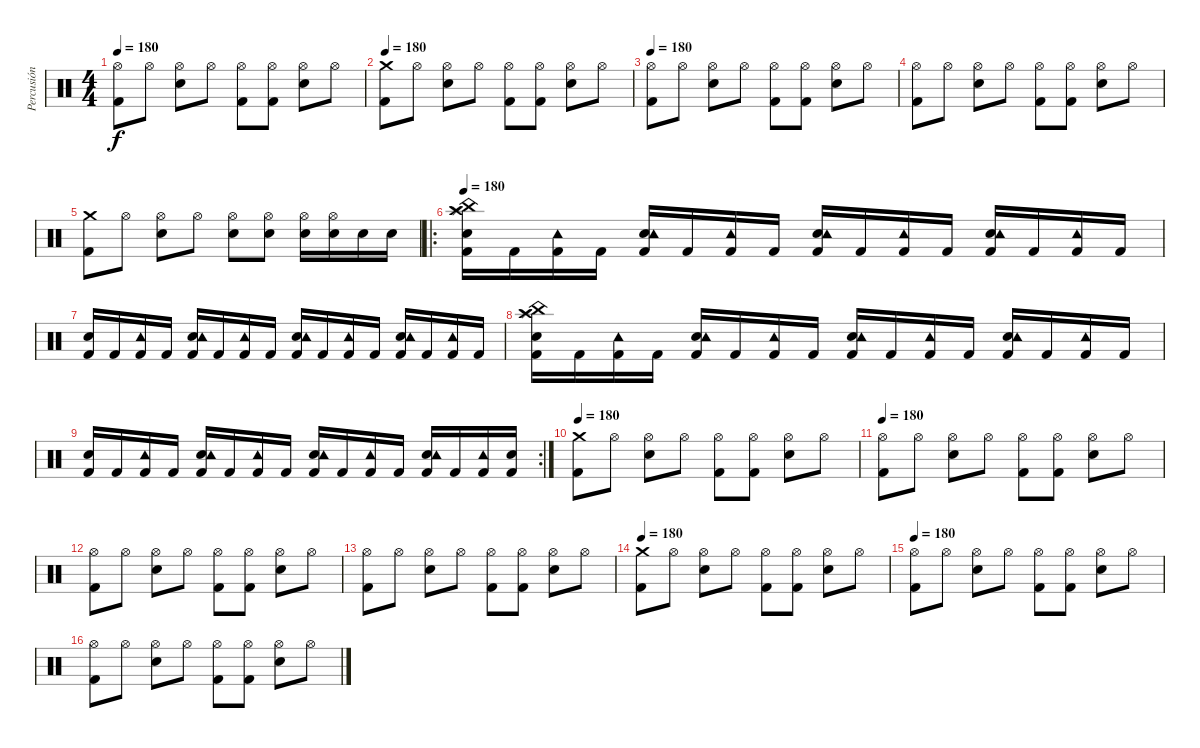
\track ("Percusión" "Percusión") {instrument percussion}
\staff {score}
\articulation defaults
\ts (4 4)
\tempo 180
\clef neutral
\ks c
("Hi-Hat (open)" "Kick (hit) 2").8{dy f} "Hi-Hat (open)".8 ("Hi-Hat (open)" "Snare (hit) 2").8 "Hi-Hat (open)".8 ("Hi-Hat (open)" "Kick (hit) 2").8 ("Hi-Hat (open)" "Kick (hit) 2").8 ("Hi-Hat (open)" "Snare (hit) 2").8 "Hi-Hat (open)".8 |
\tempo 180
("Crash medium (hit)" "Kick (hit) 2").8 "Hi-Hat (open)".8 ("Hi-Hat (open)" "Snare (hit) 2").8 "Hi-Hat (open)".8 ("Hi-Hat (open)" "Kick (hit) 2").8 ("Hi-Hat (open)" "Kick (hit) 2").8 ("Hi-Hat (open)" "Snare (hit) 2").8 "Hi-Hat (open)".8 |
\tempo 180
("Hi-Hat (open)" "Kick (hit) 2").8 "Hi-Hat (open)".8 ("Hi-Hat (open)" "Snare (hit) 2").8 "Hi-Hat (open)".8 ("Hi-Hat (open)" "Kick (hit) 2").8 ("Hi-Hat (open)" "Kick (hit) 2").8 ("Hi-Hat (open)" "Snare (hit) 2").8 "Hi-Hat (open)".8 |
("Hi-Hat (open)" "Kick (hit) 2").8 "Hi-Hat (open)".8 ("Hi-Hat (open)" "Snare (hit) 2").8 "Hi-Hat (open)".8 ("Hi-Hat (open)" "Kick (hit) 2").8 ("Hi-Hat (open)" "Kick (hit) 2").8 ("Hi-Hat (open)" "Snare (hit) 2").8 "Hi-Hat (open)".8 |
("Crash medium (hit)" "Kick (hit) 2").8 "Hi-Hat (open)".8 ("Hi-Hat (open)" "Snare (hit) 2").8 "Hi-Hat (open)".8 ("Hi-Hat (open)" "Snare (hit) 2").8 ("Hi-Hat (open)" "Snare (hit) 2").8 ("Hi-Hat (open)" "Snare (hit) 2").16 ("Hi-Hat (open)" "Snare (hit) 2").16 "Snare (hit) 2".16 "Snare (hit) 2".16 |
\ro
\tempo 180
("Kick (hit) 2" "Snare (hit) 2" "Crash high (hit)" "Splash (hit)" "China (hit)").16 "Kick (hit) 2".16 ("Kick (hit) 2" "Tambourine (hit)").16 "Kick (hit) 2".16 ("Kick (hit) 2" "Snare (hit) 2" "Tambourine (hit)").16 "Kick (hit) 2".16 ("Kick (hit) 2" "Tambourine (hit)").16 "Kick (hit) 2".16 ("Kick (hit) 2" "Snare (hit) 2" "Tambourine (hit)").16 "Kick (hit) 2".16 ("Kick (hit) 2" "Tambourine (hit)").16 "Kick (hit) 2".16 ("Kick (hit) 2" "Snare (hit) 2" "Tambourine (hit)").16 "Kick (hit) 2".16 ("Kick (hit) 2" "Tambourine (hit)").16 "Kick (hit) 2".16 |
("Kick (hit) 2" "Snare (hit) 2").16 "Kick (hit) 2".16 ("Kick (hit) 2" "Tambourine (hit)").16 "Kick (hit) 2".16 ("Kick (hit) 2" "Snare (hit) 2" "Tambourine (hit)").16 "Kick (hit) 2".16 ("Kick (hit) 2" "Tambourine (hit)").16 "Kick (hit) 2".16 ("Kick (hit) 2" "Snare (hit) 2" "Tambourine (hit)").16 "Kick (hit) 2".16 ("Kick (hit) 2" "Tambourine (hit)").16 "Kick (hit) 2".16 ("Kick (hit) 2" "Snare (hit) 2" "Tambourine (hit)").16 "Kick (hit) 2".16 ("Kick (hit) 2" "Tambourine (hit)").16 "Kick (hit) 2".16 |
("Kick (hit) 2" "Snare (hit) 2" "Crash high (hit)" "Splash (hit)" "China (hit)").16 "Kick (hit) 2".16 ("Kick (hit) 2" "Tambourine (hit)").16 "Kick (hit) 2".16 ("Kick (hit) 2" "Snare (hit) 2" "Tambourine (hit)").16 "Kick (hit) 2".16 ("Kick (hit) 2" "Tambourine (hit)").16 "Kick (hit) 2".16 ("Kick (hit) 2" "Snare (hit) 2" "Tambourine (hit)").16 "Kick (hit) 2".16 ("Kick (hit) 2" "Tambourine (hit)").16 "Kick (hit) 2".16 ("Kick (hit) 2" "Snare (hit) 2" "Tambourine (hit)").16 "Kick (hit) 2".16 ("Kick (hit) 2" "Tambourine (hit)").16 "Kick (hit) 2".16 |
\rc 2
("Kick (hit) 2" "Snare (hit) 2").16 "Kick (hit) 2".16 ("Kick (hit) 2" "Tambourine (hit)").16 "Kick (hit) 2".16 ("Kick (hit) 2" "Snare (hit) 2" "Tambourine (hit)").16 "Kick (hit) 2".16 ("Kick (hit) 2" "Tambourine (hit)").16 "Kick (hit) 2".16 ("Kick (hit) 2" "Snare (hit) 2" "Tambourine (hit)").16 "Kick (hit) 2".16 ("Kick (hit) 2" "Tambourine (hit)").16 "Kick (hit) 2".16 ("Kick (hit) 2" "Snare (hit) 2" "Tambourine (hit)").16 "Kick (hit) 2".16 ("Kick (hit) 2" "Tambourine (hit)").16 ("Kick (hit) 2" "Snare (hit) 2").16 |
\tempo 180
("Crash medium (hit)" "Kick (hit) 2").8 "Hi-Hat (open)".8 ("Hi-Hat (open)" "Snare (hit) 2").8 "Hi-Hat (open)".8 ("Hi-Hat (open)" "Kick (hit) 2").8 ("Hi-Hat (open)" "Kick (hit) 2").8 ("Hi-Hat (open)" "Snare (hit) 2").8 "Hi-Hat (open)".8 |
\tempo 180
("Hi-Hat (open)" "Kick (hit) 2").8 "Hi-Hat (open)".8 ("Hi-Hat (open)" "Snare (hit) 2").8 "Hi-Hat (open)".8 ("Hi-Hat (open)" "Kick (hit) 2").8 ("Hi-Hat (open)" "Kick (hit) 2").8 ("Hi-Hat (open)" "Snare (hit) 2").8 "Hi-Hat (open)".8 |
("Hi-Hat (open)" "Kick (hit) 2").8 "Hi-Hat (open)".8 ("Hi-Hat (open)" "Snare (hit) 2").8 "Hi-Hat (open)".8 ("Hi-Hat (open)" "Kick (hit) 2").8 ("Hi-Hat (open)" "Kick (hit) 2").8 ("Hi-Hat (open)" "Snare (hit) 2").8 "Hi-Hat (open)".8 |
("Hi-Hat (open)" "Kick (hit) 2").8 "Hi-Hat (open)".8 ("Hi-Hat (open)" "Snare (hit) 2").8 "Hi-Hat (open)".8 ("Hi-Hat (open)" "Kick (hit) 2").8 ("Hi-Hat (open)" "Kick (hit) 2").8 ("Hi-Hat (open)" "Snare (hit) 2").8 "Hi-Hat (open)".8 |
\tempo 180
("Crash medium (hit)" "Kick (hit) 2").8 "Hi-Hat (open)".8 ("Hi-Hat (open)" "Snare (hit) 2").8 "Hi-Hat (open)".8 ("Hi-Hat (open)" "Kick (hit) 2").8 ("Hi-Hat (open)" "Kick (hit) 2").8 ("Hi-Hat (open)" "Snare (hit) 2").8 "Hi-Hat (open)".8 |
\tempo 180
("Hi-Hat (open)" "Kick (hit) 2").8 "Hi-Hat (open)".8 ("Hi-Hat (open)" "Snare (hit) 2").8 "Hi-Hat (open)".8 ("Hi-Hat (open)" "Kick (hit) 2").8 ("Hi-Hat (open)" "Kick (hit) 2").8 ("Hi-Hat (open)" "Snare (hit) 2").8 "Hi-Hat (open)".8 |
("Hi-Hat (open)" "Kick (hit) 2").8 "Hi-Hat (open)".8 ("Hi-Hat (open)" "Snare (hit) 2").8 "Hi-Hat (open)".8 ("Hi-Hat (open)" "Kick (hit) 2").8 ("Hi-Hat (open)" "Kick (hit) 2").8 ("Hi-Hat (open)" "Snare (hit) 2").8 "Hi-Hat (open)".8
